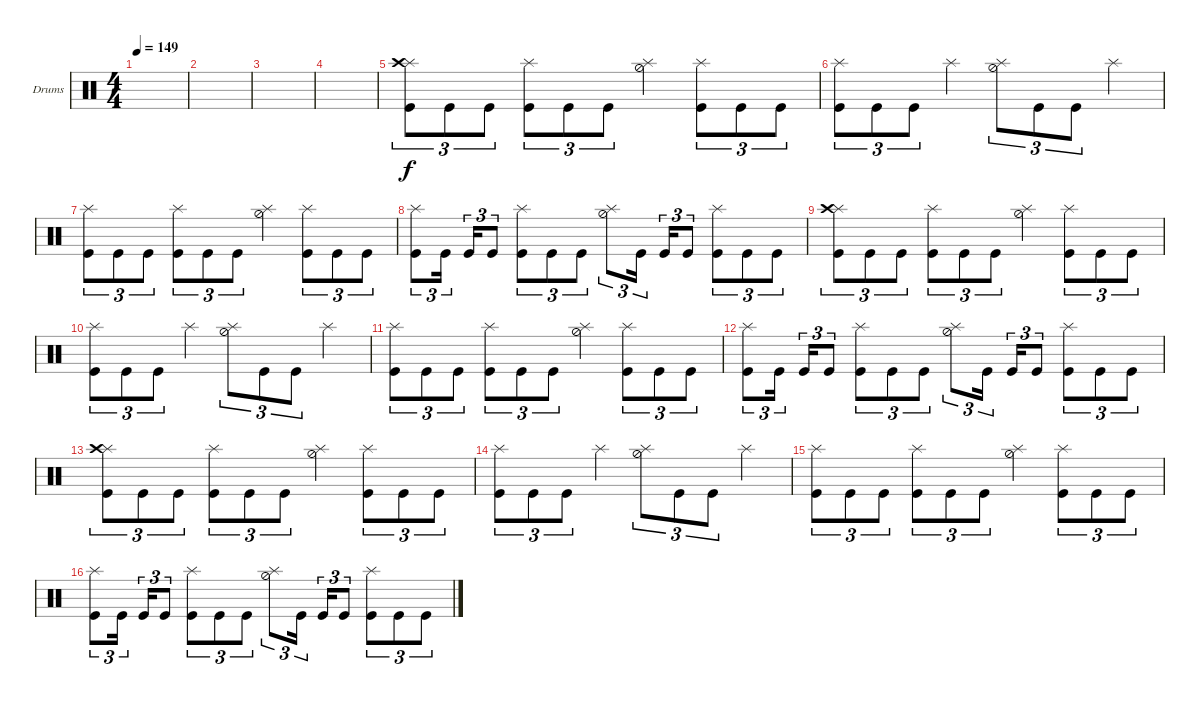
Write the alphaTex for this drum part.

\defaultSystemsLayout 4
\bracketExtendMode groupsimilarinstruments
\firstSystemTrackNameOrientation horizontal
\otherSystemsTrackNameOrientation horizontal
\track ("Chris Adler" "Drums") {instrument percussion}
\staff {score}
\articulation defaults
\ts (4 4)
\tempo 149
\clef neutral
\scale
0.333333
\ks c
|
\scale
0.333333 |
\scale
0.333333 |
\scale
0.333333 |
\scale
0.333333 ("Kick (hit)" "Splash (hit)" "Crash high (hit)").8{tu (3 2)} "Kick (hit)".8{tu (3 2)} "Kick (hit)".8{tu (3 2)} ("Kick (hit)" "Splash (hit)").8{tu (3 2)} "Kick (hit)".8{tu (3 2)} "Kick (hit)".8{tu (3 2)} ("Hi-Hat (half)" "Splash (hit)").4 ("Kick (hit)" "Splash (hit)").8{tu (3 2)} "Kick (hit)".8{tu (3 2)} "Kick (hit)".8{tu (3 2)} |
\scale
0.333333 ("Kick (hit)" "Splash (hit)").8{tu (3 2)} "Kick (hit)".8{tu (3 2)} "Kick (hit)".8{tu (3 2)} "Splash (hit)".4 ("Hi-Hat (half)" "Splash (hit)").8{tu (3 2)} "Kick (hit)".8{tu (3 2)} "Kick (hit)".8{tu (3 2)} "Splash (hit)".4 |
\scale
0.333333 ("Kick (hit)" "Splash (hit)").8{tu (3 2)} "Kick (hit)".8{tu (3 2)} "Kick (hit)".8{tu (3 2)} ("Kick (hit)" "Splash (hit)").8{tu (3 2)} "Kick (hit)".8{tu (3 2)} "Kick (hit)".8{tu (3 2)} ("Hi-Hat (half)" "Splash (hit)").4 ("Kick (hit)" "Splash (hit)").8{tu (3 2)} "Kick (hit)".8{tu (3 2)} "Kick (hit)".8{tu (3 2)} |
\scale
0.333333 ("Kick (hit)" "Splash (hit)").8{tu (3 2)} "Kick (hit)".16{tu (3 2)} "Kick (hit)".16{tu (3 2)} "Kick (hit)".8{tu (3 2)} ("Kick (hit)" "Splash (hit)").8{tu (3 2)} "Kick (hit)".8{tu (3 2)} "Kick (hit)".8{tu (3 2)} ("Hi-Hat (half)" "Splash (hit)").8{tu (3 2)} "Kick (hit)".16{tu (3 2)} "Kick (hit)".16{tu (3 2)} "Kick (hit)".8{tu (3 2)} ("Kick (hit)" "Splash (hit)").8{tu (3 2)} "Kick (hit)".8{tu (3 2)} "Kick (hit)".8{tu (3 2)} |
\scale
0.333333 ("Kick (hit)" "Splash (hit)" "Crash high (hit)").8{tu (3 2)} "Kick (hit)".8{tu (3 2)} "Kick (hit)".8{tu (3 2)} ("Kick (hit)" "Splash (hit)").8{tu (3 2)} "Kick (hit)".8{tu (3 2)} "Kick (hit)".8{tu (3 2)} ("Hi-Hat (half)" "Splash (hit)").4 ("Kick (hit)" "Splash (hit)").8{tu (3 2)} "Kick (hit)".8{tu (3 2)} "Kick (hit)".8{tu (3 2)} |
\scale
0.333333 ("Kick (hit)" "Splash (hit)").8{tu (3 2)} "Kick (hit)".8{tu (3 2)} "Kick (hit)".8{tu (3 2)} "Splash (hit)".4 ("Hi-Hat (half)" "Splash (hit)").8{tu (3 2)} "Kick (hit)".8{tu (3 2)} "Kick (hit)".8{tu (3 2)} "Splash (hit)".4 |
\scale
0.333333 ("Kick (hit)" "Splash (hit)").8{tu (3 2)} "Kick (hit)".8{tu (3 2)} "Kick (hit)".8{tu (3 2)} ("Kick (hit)" "Splash (hit)").8{tu (3 2)} "Kick (hit)".8{tu (3 2)} "Kick (hit)".8{tu (3 2)} ("Hi-Hat (half)" "Splash (hit)").4 ("Kick (hit)" "Splash (hit)").8{tu (3 2)} "Kick (hit)".8{tu (3 2)} "Kick (hit)".8{tu (3 2)} |
\scale
0.333333 ("Kick (hit)" "Splash (hit)").8{tu (3 2)} "Kick (hit)".16{tu (3 2)} "Kick (hit)".16{tu (3 2)} "Kick (hit)".8{tu (3 2)} ("Kick (hit)" "Splash (hit)").8{tu (3 2)} "Kick (hit)".8{tu (3 2)} "Kick (hit)".8{tu (3 2)} ("Hi-Hat (half)" "Splash (hit)").8{tu (3 2)} "Kick (hit)".16{tu (3 2)} "Kick (hit)".16{tu (3 2)} "Kick (hit)".8{tu (3 2)} ("Kick (hit)" "Splash (hit)").8{tu (3 2)} "Kick (hit)".8{tu (3 2)} "Kick (hit)".8{tu (3 2)} |
\scale
0.333333 ("Kick (hit)" "Splash (hit)" "Crash high (hit)").8{tu (3 2)} "Kick (hit)".8{tu (3 2)} "Kick (hit)".8{tu (3 2)} ("Kick (hit)" "Splash (hit)").8{tu (3 2)} "Kick (hit)".8{tu (3 2)} "Kick (hit)".8{tu (3 2)} ("Hi-Hat (half)" "Splash (hit)").4 ("Kick (hit)" "Splash (hit)").8{tu (3 2)} "Kick (hit)".8{tu (3 2)} "Kick (hit)".8{tu (3 2)} |
\scale
0.333333 ("Kick (hit)" "Splash (hit)").8{tu (3 2)} "Kick (hit)".8{tu (3 2)} "Kick (hit)".8{tu (3 2)} "Splash (hit)".4 ("Hi-Hat (half)" "Splash (hit)").8{tu (3 2)} "Kick (hit)".8{tu (3 2)} "Kick (hit)".8{tu (3 2)} "Splash (hit)".4 |
\scale
0.333333 ("Kick (hit)" "Splash (hit)").8{tu (3 2)} "Kick (hit)".8{tu (3 2)} "Kick (hit)".8{tu (3 2)} ("Kick (hit)" "Splash (hit)").8{tu (3 2)} "Kick (hit)".8{tu (3 2)} "Kick (hit)".8{tu (3 2)} ("Hi-Hat (half)" "Splash (hit)").4 ("Kick (hit)" "Splash (hit)").8{tu (3 2)} "Kick (hit)".8{tu (3 2)} "Kick (hit)".8{tu (3 2)} |
\scale
0.333333 ("Kick (hit)" "Splash (hit)").8{tu (3 2)} "Kick (hit)".16{tu (3 2)} "Kick (hit)".16{tu (3 2)} "Kick (hit)".8{tu (3 2)} ("Kick (hit)" "Splash (hit)").8{tu (3 2)} "Kick (hit)".8{tu (3 2)} "Kick (hit)".8{tu (3 2)} ("Hi-Hat (half)" "Splash (hit)").8{tu (3 2)} "Kick (hit)".16{tu (3 2)} "Kick (hit)".16{tu (3 2)} "Kick (hit)".8{tu (3 2)} ("Kick (hit)" "Splash (hit)").8{tu (3 2)} "Kick (hit)".8{tu (3 2)} "Kick (hit)".8{tu (3 2)}
